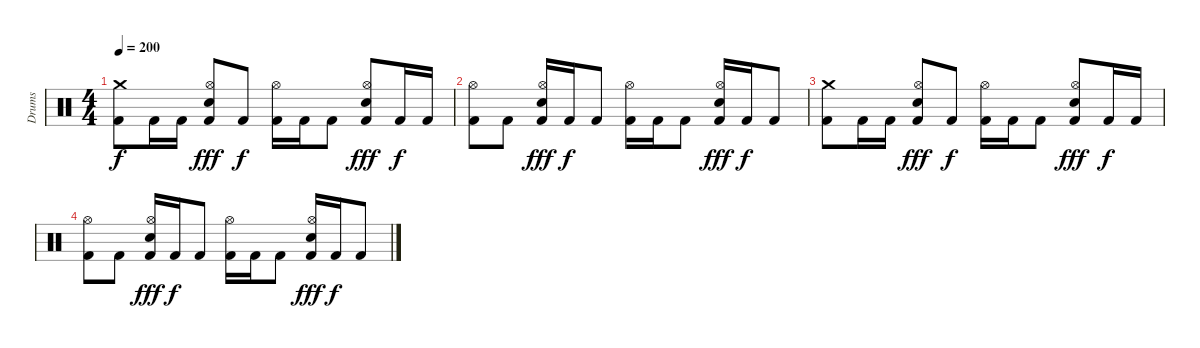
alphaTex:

\track ("Drums" "Drums") {instrument percussion}
\staff {score}
\articulation defaults
\ts (4 4)
\tempo 200
\clef neutral
\ks c
("Crash medium (hit)" "Kick (hit) 2").8{dy f volume 1} "Kick (hit) 2".16 "Kick (hit) 2".16 ("Hi-Hat (open)" "Snare (hit) 2" "Kick (hit) 2").8{dy fff} "Kick (hit) 2".8{dy f} ("Hi-Hat (open)" "Kick (hit) 2").16 "Kick (hit) 2".16 "Kick (hit) 2".8 ("Hi-Hat (open)" "Snare (hit) 2" "Kick (hit) 2").8{dy fff} "Kick (hit) 2".16{dy f} "Kick (hit) 2".16 |
("Hi-Hat (open)" "Kick (hit) 2").8 "Kick (hit) 2".8 ("Hi-Hat (open)" "Snare (hit) 2" "Kick (hit) 2").16{dy fff} "Kick (hit) 2".16{dy f} "Kick (hit) 2".8 ("Hi-Hat (open)" "Kick (hit) 2").16 "Kick (hit) 2".16 "Kick (hit) 2".8 ("Hi-Hat (open)" "Snare (hit) 2" "Kick (hit) 2").16{dy fff} "Kick (hit) 2".16{dy f} "Kick (hit) 2".8 |
("Crash medium (hit)" "Kick (hit) 2").8{volume 0} "Kick (hit) 2".16 "Kick (hit) 2".16 ("Hi-Hat (open)" "Snare (hit) 2" "Kick (hit) 2").8{dy fff} "Kick (hit) 2".8{dy f} ("Hi-Hat (open)" "Kick (hit) 2").16 "Kick (hit) 2".16 "Kick (hit) 2".8 ("Hi-Hat (open)" "Snare (hit) 2" "Kick (hit) 2").8{dy fff} "Kick (hit) 2".16{dy f} "Kick (hit) 2".16 |
("Hi-Hat (open)" "Kick (hit) 2").8 "Kick (hit) 2".8 ("Hi-Hat (open)" "Snare (hit) 2" "Kick (hit) 2").16{dy fff} "Kick (hit) 2".16{dy f} "Kick (hit) 2".8 ("Hi-Hat (open)" "Kick (hit) 2").16 "Kick (hit) 2".16 "Kick (hit) 2".8 ("Hi-Hat (open)" "Snare (hit) 2" "Kick (hit) 2").16{dy fff} "Kick (hit) 2".16{dy f} "Kick (hit) 2".8
